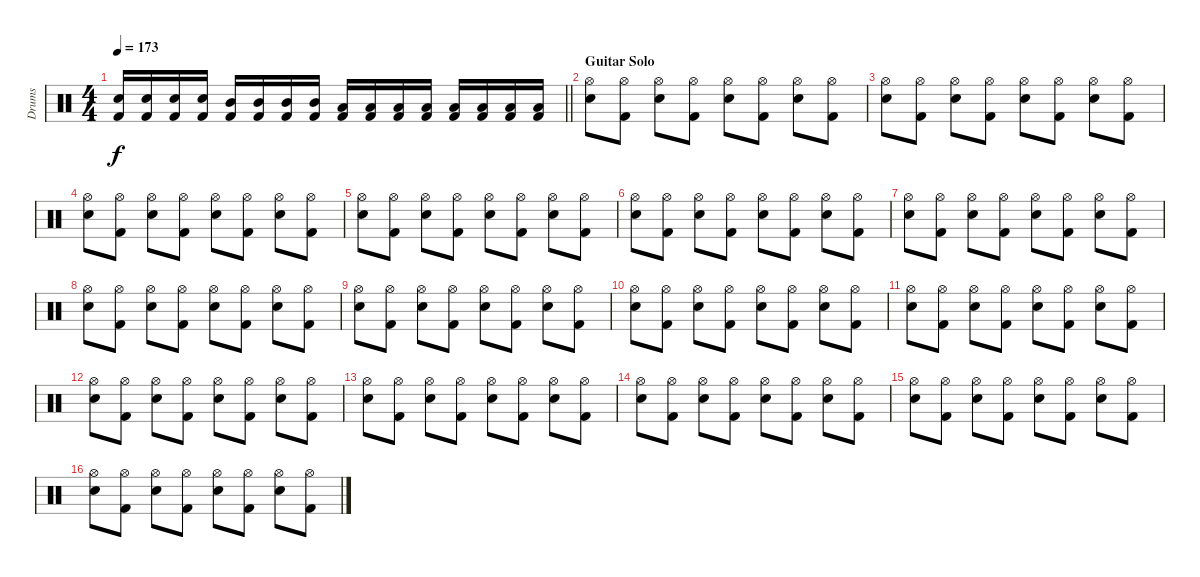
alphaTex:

\track ("Drums" "Drums") {instrument percussion}
\staff {score}
\articulation defaults
\ts (4 4)
\tempo 173
\clef neutral
\barLineRight lightlight
\ks c
("Snare (hit) 2" "Kick (hit) 2").16{dy f} ("Snare (hit) 2" "Kick (hit) 2").16 ("Snare (hit) 2" "Kick (hit) 2").16 ("Snare (hit) 2" "Kick (hit) 2").16 ("Mid Tom (hit)" "Kick (hit) 2").16 ("Mid Tom (hit)" "Kick (hit) 2").16 ("Mid Tom (hit)" "Kick (hit) 2").16 ("Mid Tom (hit)" "Kick (hit) 2").16 ("Low Tom (hit)" "Kick (hit) 2").16 ("Low Tom (hit)" "Kick (hit) 2").16 ("Low Tom (hit)" "Kick (hit) 2").16 ("Low Tom (hit)" "Kick (hit) 2").16 ("Low Floor Tom (hit)" "Kick (hit) 2").16 ("Low Floor Tom (hit)" "Kick (hit) 2").16 ("Low Floor Tom (hit)" "Kick (hit) 2").16 ("Low Floor Tom (hit)" "Kick (hit) 2").16 |
\section ("" "Guitar Solo")
("Hi-Hat (open)" "Snare (hit) 2").8 ("Hi-Hat (open)" "Kick (hit) 2").8 ("Hi-Hat (open)" "Snare (hit) 2").8 ("Hi-Hat (open)" "Kick (hit) 2").8 ("Hi-Hat (open)" "Snare (hit) 2").8 ("Hi-Hat (open)" "Kick (hit) 2").8 ("Hi-Hat (open)" "Snare (hit) 2").8 ("Hi-Hat (open)" "Kick (hit) 2").8 |
("Hi-Hat (open)" "Snare (hit) 2").8 ("Hi-Hat (open)" "Kick (hit) 2").8 ("Hi-Hat (open)" "Snare (hit) 2").8 ("Hi-Hat (open)" "Kick (hit) 2").8 ("Hi-Hat (open)" "Snare (hit) 2").8 ("Hi-Hat (open)" "Kick (hit) 2").8 ("Hi-Hat (open)" "Snare (hit) 2").8 ("Hi-Hat (open)" "Kick (hit) 2").8 |
("Hi-Hat (open)" "Snare (hit) 2").8 ("Hi-Hat (open)" "Kick (hit) 2").8 ("Hi-Hat (open)" "Snare (hit) 2").8 ("Hi-Hat (open)" "Kick (hit) 2").8 ("Hi-Hat (open)" "Snare (hit) 2").8 ("Hi-Hat (open)" "Kick (hit) 2").8 ("Hi-Hat (open)" "Snare (hit) 2").8 ("Hi-Hat (open)" "Kick (hit) 2").8 |
("Hi-Hat (open)" "Snare (hit) 2").8 ("Hi-Hat (open)" "Kick (hit) 2").8 ("Hi-Hat (open)" "Snare (hit) 2").8 ("Hi-Hat (open)" "Kick (hit) 2").8 ("Hi-Hat (open)" "Snare (hit) 2").8 ("Hi-Hat (open)" "Kick (hit) 2").8 ("Hi-Hat (open)" "Snare (hit) 2").8 ("Hi-Hat (open)" "Kick (hit) 2").8 |
("Hi-Hat (open)" "Snare (hit) 2").8 ("Hi-Hat (open)" "Kick (hit) 2").8 ("Hi-Hat (open)" "Snare (hit) 2").8 ("Hi-Hat (open)" "Kick (hit) 2").8 ("Hi-Hat (open)" "Snare (hit) 2").8 ("Hi-Hat (open)" "Kick (hit) 2").8 ("Hi-Hat (open)" "Snare (hit) 2").8 ("Hi-Hat (open)" "Kick (hit) 2").8 |
("Hi-Hat (open)" "Snare (hit) 2").8 ("Hi-Hat (open)" "Kick (hit) 2").8 ("Hi-Hat (open)" "Snare (hit) 2").8 ("Hi-Hat (open)" "Kick (hit) 2").8 ("Hi-Hat (open)" "Snare (hit) 2").8 ("Hi-Hat (open)" "Kick (hit) 2").8 ("Hi-Hat (open)" "Snare (hit) 2").8 ("Hi-Hat (open)" "Kick (hit) 2").8 |
("Hi-Hat (open)" "Snare (hit) 2").8 ("Hi-Hat (open)" "Kick (hit) 2").8 ("Hi-Hat (open)" "Snare (hit) 2").8 ("Hi-Hat (open)" "Kick (hit) 2").8 ("Hi-Hat (open)" "Snare (hit) 2").8 ("Hi-Hat (open)" "Kick (hit) 2").8 ("Hi-Hat (open)" "Snare (hit) 2").8 ("Hi-Hat (open)" "Kick (hit) 2").8 |
("Hi-Hat (open)" "Snare (hit) 2").8 ("Hi-Hat (open)" "Kick (hit) 2").8 ("Hi-Hat (open)" "Snare (hit) 2").8 ("Hi-Hat (open)" "Kick (hit) 2").8 ("Hi-Hat (open)" "Snare (hit) 2").8 ("Hi-Hat (open)" "Kick (hit) 2").8 ("Hi-Hat (open)" "Snare (hit) 2").8 ("Hi-Hat (open)" "Kick (hit) 2").8 |
("Hi-Hat (open)" "Snare (hit) 2").8 ("Hi-Hat (open)" "Kick (hit) 2").8 ("Hi-Hat (open)" "Snare (hit) 2").8 ("Hi-Hat (open)" "Kick (hit) 2").8 ("Hi-Hat (open)" "Snare (hit) 2").8 ("Hi-Hat (open)" "Kick (hit) 2").8 ("Hi-Hat (open)" "Snare (hit) 2").8 ("Hi-Hat (open)" "Kick (hit) 2").8 |
("Hi-Hat (open)" "Snare (hit) 2").8 ("Hi-Hat (open)" "Kick (hit) 2").8 ("Hi-Hat (open)" "Snare (hit) 2").8 ("Hi-Hat (open)" "Kick (hit) 2").8 ("Hi-Hat (open)" "Snare (hit) 2").8 ("Hi-Hat (open)" "Kick (hit) 2").8 ("Hi-Hat (open)" "Snare (hit) 2").8 ("Hi-Hat (open)" "Kick (hit) 2").8 |
("Hi-Hat (open)" "Snare (hit) 2").8 ("Hi-Hat (open)" "Kick (hit) 2").8 ("Hi-Hat (open)" "Snare (hit) 2").8 ("Hi-Hat (open)" "Kick (hit) 2").8 ("Hi-Hat (open)" "Snare (hit) 2").8 ("Hi-Hat (open)" "Kick (hit) 2").8 ("Hi-Hat (open)" "Snare (hit) 2").8 ("Hi-Hat (open)" "Kick (hit) 2").8 |
("Hi-Hat (open)" "Snare (hit) 2").8 ("Hi-Hat (open)" "Kick (hit) 2").8 ("Hi-Hat (open)" "Snare (hit) 2").8 ("Hi-Hat (open)" "Kick (hit) 2").8 ("Hi-Hat (open)" "Snare (hit) 2").8 ("Hi-Hat (open)" "Kick (hit) 2").8 ("Hi-Hat (open)" "Snare (hit) 2").8 ("Hi-Hat (open)" "Kick (hit) 2").8 |
("Hi-Hat (open)" "Snare (hit) 2").8 ("Hi-Hat (open)" "Kick (hit) 2").8 ("Hi-Hat (open)" "Snare (hit) 2").8 ("Hi-Hat (open)" "Kick (hit) 2").8 ("Hi-Hat (open)" "Snare (hit) 2").8 ("Hi-Hat (open)" "Kick (hit) 2").8 ("Hi-Hat (open)" "Snare (hit) 2").8 ("Hi-Hat (open)" "Kick (hit) 2").8 |
("Hi-Hat (open)" "Snare (hit) 2").8 ("Hi-Hat (open)" "Kick (hit) 2").8 ("Hi-Hat (open)" "Snare (hit) 2").8 ("Hi-Hat (open)" "Kick (hit) 2").8 ("Hi-Hat (open)" "Snare (hit) 2").8 ("Hi-Hat (open)" "Kick (hit) 2").8 ("Hi-Hat (open)" "Snare (hit) 2").8 ("Hi-Hat (open)" "Kick (hit) 2").8 |
("Hi-Hat (open)" "Snare (hit) 2").8 ("Hi-Hat (open)" "Kick (hit) 2").8 ("Hi-Hat (open)" "Snare (hit) 2").8 ("Hi-Hat (open)" "Kick (hit) 2").8 ("Hi-Hat (open)" "Snare (hit) 2").8 ("Hi-Hat (open)" "Kick (hit) 2").8 ("Hi-Hat (open)" "Snare (hit) 2").8 ("Hi-Hat (open)" "Kick (hit) 2").8
